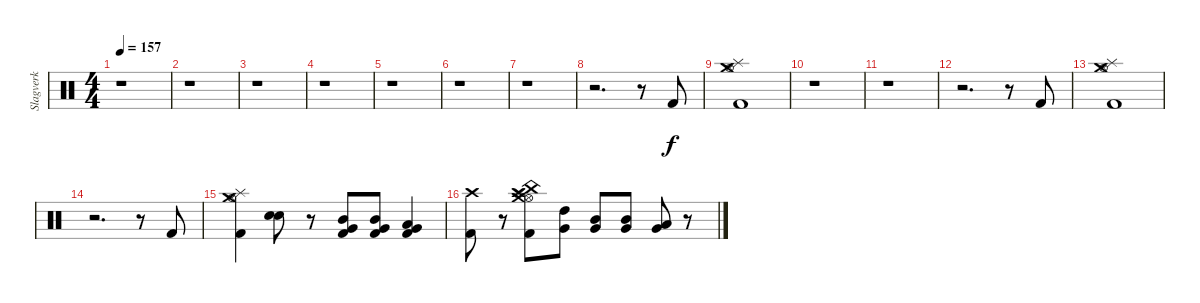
\track ("Slagverk" "Slagverk") {instrument percussion}
\staff {score}
\articulation defaults
\ts (4 4)
\tempo 157
\clef neutral
\ks c
r.1{dy f} |
r.1 |
r.1 |
r.1 |
r.1 |
r.1 |
r.1 |
r.2{d} r.8 "Kick (hit) 2".8 |
("Hi-Hat (open)" "Crash medium (hit)" "Splash (hit)" "Kick (hit) 2").1 |
r.1 |
r.1 |
r.2{d} r.8 "Kick (hit) 2".8 |
("Hi-Hat (open)" "Crash medium (hit)" "Splash (hit)" "Kick (hit) 2").1 |
r.2{d} r.8 "Kick (hit) 2".8 |
("Hi-Hat (open)" "Crash medium (hit)" "Splash (hit)" "Kick (hit) 2").4 ("Electric Snare (hit)" "Snare (hit) 2").8 r.8 ("Very Low Tom (hit)" "Mid Tom (hit)" "Kick (hit) 2").8 ("Very Low Tom (hit)" "Mid Tom (hit)" "Kick (hit) 2").8 ("Very Low Tom (hit)" "Low Tom (hit)" "Kick (hit) 2").4 |
("Crash high (hit)" "Kick (hit) 2").8 r.8 ("Crash high (hit)" "Hi-Hat (open)" "Crash medium (hit)" "Splash (hit)" "China (hit)" "Kick (hit) 2").8 ("High Tom (hit)" "Very Low Tom (hit)").8 ("Mid Tom (hit)" "Very Low Tom (hit)").8 ("Mid Tom (hit)" "Very Low Tom (hit)").8 ("Low Tom (hit)" "Very Low Tom (hit)").8 r.8
